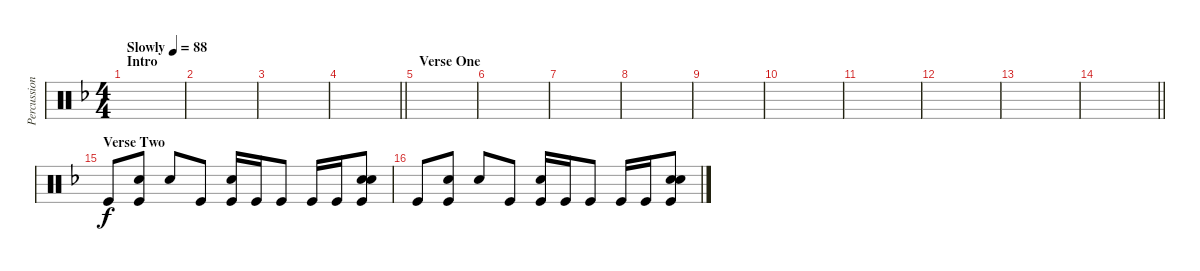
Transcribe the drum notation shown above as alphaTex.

\track ("Percussion" "Percussion") {instrument percussion}
\staff {score}
\articulation defaults
\ts (4 4)
\section ("" "Intro")
\tempo (88 "Slowly")
\clef neutral
\ks f
|
|
|
\barLineRight lightlight
|
\section ("" "Verse One")
|
|
|
|
|
|
|
|
|
\barLineRight lightlight
|
\section ("" "Verse Two")
"Kick (hit)".8 ("Snare (hit)" "Kick (hit)").8 "Electric Snare (hit)".8 "Kick (hit)".8 ("Snare (hit)" "Kick (hit)").16 "Kick (hit)".16 "Kick (hit)".8 "Kick (hit)".16 "Kick (hit)".16 ("Snare (hit)" "Electric Snare (hit)" "Kick (hit)").8 |
"Kick (hit)".8 ("Snare (hit)" "Kick (hit)").8 "Electric Snare (hit)".8 "Kick (hit)".8 ("Snare (hit)" "Kick (hit)").16 "Kick (hit)".16 "Kick (hit)".8 "Kick (hit)".16 "Kick (hit)".16 ("Snare (hit)" "Electric Snare (hit)" "Kick (hit)").8
